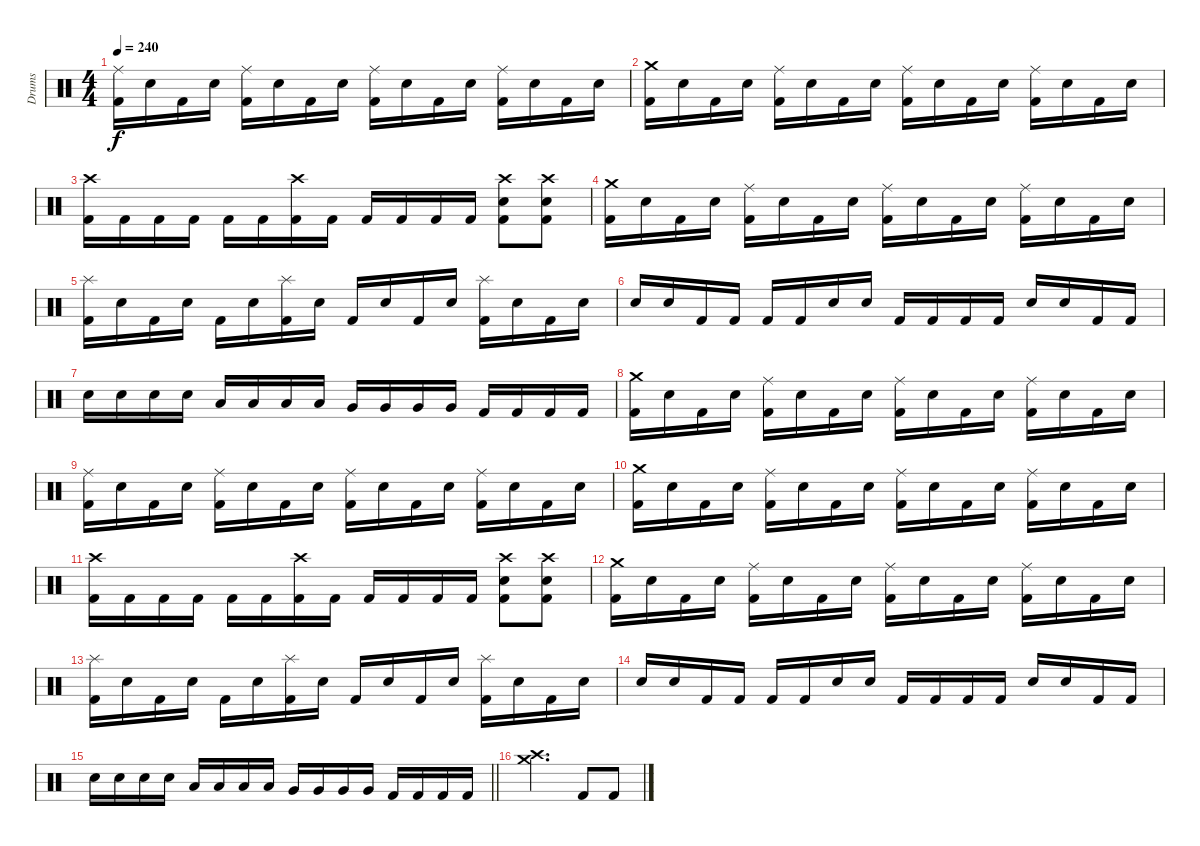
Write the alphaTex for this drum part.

\track ("Drums" "Drums") {instrument percussion}
\staff {score}
\articulation defaults
\ts (4 4)
\tempo 240
\clef neutral
\ks c
("Ride (middle)" "Kick (hit) 2").16{dy f} "Snare (hit) 2".16 "Kick (hit) 2".16 "Snare (hit) 2".16 ("Ride (middle)" "Kick (hit) 2").16 "Snare (hit) 2".16 "Kick (hit) 2".16 "Snare (hit) 2".16 ("Ride (middle)" "Kick (hit) 2").16 "Snare (hit) 2".16 "Kick (hit) 2".16 "Snare (hit) 2".16 ("Ride (middle)" "Kick (hit) 2").16 "Snare (hit) 2".16 "Kick (hit) 2".16 "Snare (hit) 2".16 |
("Crash medium (hit)" "Kick (hit) 2").16 "Snare (hit) 2".16 "Kick (hit) 2".16 "Snare (hit) 2".16 ("Ride (middle)" "Kick (hit) 2").16 "Snare (hit) 2".16 "Kick (hit) 2".16 "Snare (hit) 2".16 ("Ride (middle)" "Kick (hit) 2").16 "Snare (hit) 2".16 "Kick (hit) 2".16 "Snare (hit) 2".16 ("Ride (middle)" "Kick (hit) 2").16 "Snare (hit) 2".16 "Kick (hit) 2".16 "Snare (hit) 2".16 |
("Crash high (hit)" "Kick (hit) 2").16 "Kick (hit) 2".16 "Kick (hit) 2".16 "Kick (hit) 2".16 "Kick (hit) 2".16 "Kick (hit) 2".16 ("Crash high (hit)" "Kick (hit) 2").16 "Kick (hit) 2".16 "Kick (hit) 2".16 "Kick (hit) 2".16 "Kick (hit) 2".16 "Kick (hit) 2".16 ("Crash high (hit)" "Snare (hit) 2" "Kick (hit) 2").8 ("Crash high (hit)" "Snare (hit) 2" "Kick (hit) 2").8 |
("Crash medium (hit)" "Kick (hit) 2").16 "Snare (hit) 2".16 "Kick (hit) 2".16 "Snare (hit) 2".16 ("Ride (middle)" "Kick (hit) 2").16 "Snare (hit) 2".16 "Kick (hit) 2".16 "Snare (hit) 2".16 ("Ride (middle)" "Kick (hit) 2").16 "Snare (hit) 2".16 "Kick (hit) 2".16 "Snare (hit) 2".16 ("Ride (middle)" "Kick (hit) 2").16 "Snare (hit) 2".16 "Kick (hit) 2".16 "Snare (hit) 2".16 |
("Splash (hit)" "Kick (hit) 2").16 "Snare (hit) 2".16 "Kick (hit) 2".16 "Snare (hit) 2".16 "Kick (hit) 2".16 "Snare (hit) 2".16 ("Splash (hit)" "Kick (hit) 2").16 "Snare (hit) 2".16 "Kick (hit) 2".16 "Snare (hit) 2".16 "Kick (hit) 2".16 "Snare (hit) 2".16 ("Splash (hit)" "Kick (hit) 2").16 "Snare (hit) 2".16 "Kick (hit) 2".16 "Snare (hit) 2".16 |
"Snare (hit) 2".16 "Snare (hit) 2".16 "Kick (hit) 2".16 "Kick (hit) 2".16 "Kick (hit) 2".16 "Kick (hit) 2".16 "Snare (hit) 2".16 "Snare (hit) 2".16 "Kick (hit) 2".16 "Kick (hit) 2".16 "Kick (hit) 2".16 "Kick (hit) 2".16 "Snare (hit) 2".16 "Snare (hit) 2".16 "Kick (hit) 2".16 "Kick (hit) 2".16 |
"Snare (hit) 2".16 "Snare (hit) 2".16 "Snare (hit) 2".16 "Snare (hit) 2".16 "Low Tom (hit)".16 "Low Tom (hit)".16 "Low Tom (hit)".16 "Low Tom (hit)".16 "Very Low Tom (hit)".16 "Very Low Tom (hit)".16 "Very Low Tom (hit)".16 "Very Low Tom (hit)".16 "Kick (hit) 2".16 "Kick (hit) 2".16 "Kick (hit) 2".16 "Kick (hit) 2".16 |
("Crash medium (hit)" "Kick (hit) 2").16 "Snare (hit) 2".16 "Kick (hit) 2".16 "Snare (hit) 2".16 ("Ride (middle)" "Kick (hit) 2").16 "Snare (hit) 2".16 "Kick (hit) 2".16 "Snare (hit) 2".16 ("Ride (middle)" "Kick (hit) 2").16 "Snare (hit) 2".16 "Kick (hit) 2".16 "Snare (hit) 2".16 ("Ride (middle)" "Kick (hit) 2").16 "Snare (hit) 2".16 "Kick (hit) 2".16 "Snare (hit) 2".16 |
("Ride (middle)" "Kick (hit) 2").16 "Snare (hit) 2".16 "Kick (hit) 2".16 "Snare (hit) 2".16 ("Ride (middle)" "Kick (hit) 2").16 "Snare (hit) 2".16 "Kick (hit) 2".16 "Snare (hit) 2".16 ("Ride (middle)" "Kick (hit) 2").16 "Snare (hit) 2".16 "Kick (hit) 2".16 "Snare (hit) 2".16 ("Ride (middle)" "Kick (hit) 2").16 "Snare (hit) 2".16 "Kick (hit) 2".16 "Snare (hit) 2".16 |
("Crash medium (hit)" "Kick (hit) 2").16 "Snare (hit) 2".16 "Kick (hit) 2".16 "Snare (hit) 2".16 ("Ride (middle)" "Kick (hit) 2").16 "Snare (hit) 2".16 "Kick (hit) 2".16 "Snare (hit) 2".16 ("Ride (middle)" "Kick (hit) 2").16 "Snare (hit) 2".16 "Kick (hit) 2".16 "Snare (hit) 2".16 ("Ride (middle)" "Kick (hit) 2").16 "Snare (hit) 2".16 "Kick (hit) 2".16 "Snare (hit) 2".16 |
("Crash high (hit)" "Kick (hit) 2").16 "Kick (hit) 2".16 "Kick (hit) 2".16 "Kick (hit) 2".16 "Kick (hit) 2".16 "Kick (hit) 2".16 ("Crash high (hit)" "Kick (hit) 2").16 "Kick (hit) 2".16 "Kick (hit) 2".16 "Kick (hit) 2".16 "Kick (hit) 2".16 "Kick (hit) 2".16 ("Crash high (hit)" "Snare (hit) 2" "Kick (hit) 2").8 ("Crash high (hit)" "Snare (hit) 2" "Kick (hit) 2").8 |
("Crash medium (hit)" "Kick (hit) 2").16 "Snare (hit) 2".16 "Kick (hit) 2".16 "Snare (hit) 2".16 ("Ride (middle)" "Kick (hit) 2").16 "Snare (hit) 2".16 "Kick (hit) 2".16 "Snare (hit) 2".16 ("Ride (middle)" "Kick (hit) 2").16 "Snare (hit) 2".16 "Kick (hit) 2".16 "Snare (hit) 2".16 ("Ride (middle)" "Kick (hit) 2").16 "Snare (hit) 2".16 "Kick (hit) 2".16 "Snare (hit) 2".16 |
("Splash (hit)" "Kick (hit) 2").16 "Snare (hit) 2".16 "Kick (hit) 2".16 "Snare (hit) 2".16 "Kick (hit) 2".16 "Snare (hit) 2".16 ("Splash (hit)" "Kick (hit) 2").16 "Snare (hit) 2".16 "Kick (hit) 2".16 "Snare (hit) 2".16 "Kick (hit) 2".16 "Snare (hit) 2".16 ("Splash (hit)" "Kick (hit) 2").16 "Snare (hit) 2".16 "Kick (hit) 2".16 "Snare (hit) 2".16 |
"Snare (hit) 2".16 "Snare (hit) 2".16 "Kick (hit) 2".16 "Kick (hit) 2".16 "Kick (hit) 2".16 "Kick (hit) 2".16 "Snare (hit) 2".16 "Snare (hit) 2".16 "Kick (hit) 2".16 "Kick (hit) 2".16 "Kick (hit) 2".16 "Kick (hit) 2".16 "Snare (hit) 2".16 "Snare (hit) 2".16 "Kick (hit) 2".16 "Kick (hit) 2".16 |
\barLineRight lightlight "Snare (hit) 2".16 "Snare (hit) 2".16 "Snare (hit) 2".16 "Snare (hit) 2".16 "Low Tom (hit)".16 "Low Tom (hit)".16 "Low Tom (hit)".16 "Low Tom (hit)".16 "Very Low Tom (hit)".16 "Very Low Tom (hit)".16 "Very Low Tom (hit)".16 "Very Low Tom (hit)".16 "Kick (hit) 2".16 "Kick (hit) 2".16 "Kick (hit) 2".16 "Kick (hit) 2".16
|
\section ("" "")
("Crash medium (hit)" "Crash high (hit)").2{d} "Kick (hit) 2".8 "Kick (hit) 2".8
